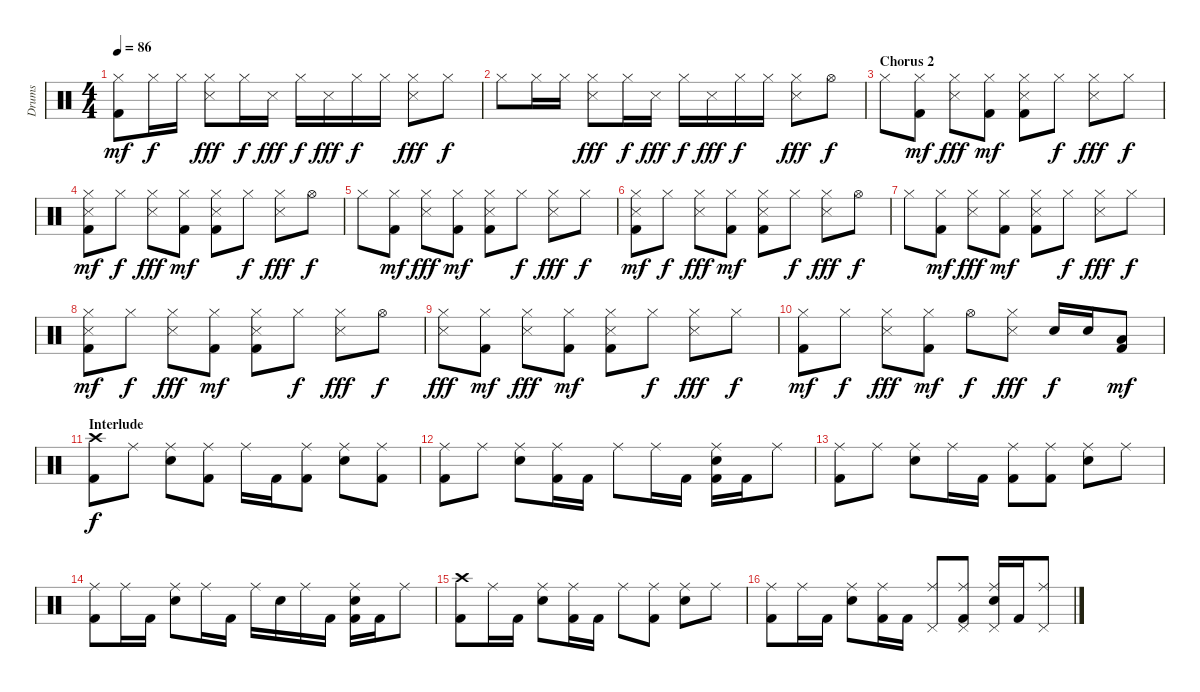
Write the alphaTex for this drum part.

\track ("Drums" "Drums") {instrument percussion}
\staff {score}
\articulation defaults
\ts (4 4)
\tempo 86
\clef neutral
\ks c
("Hi-Hat (closed)" "Kick (hit) 2").8{dy mf} "Hi-Hat (closed)".16{dy f} "Hi-Hat (closed)".16 ("Hi-Hat (closed)" "Snare (side stick) 3").8{dy fff} "Hi-Hat (closed)".16{dy f} "Snare (side stick) 3".16{dy fff} "Hi-Hat (closed)".16{dy f} "Snare (side stick) 3".16{dy fff} "Hi-Hat (closed)".16{dy f} "Hi-Hat (closed)".16 ("Hi-Hat (closed)" "Snare (side stick) 3").8{dy fff} "Hi-Hat (closed)".8{dy f} |
"Hi-Hat (closed)".8 "Hi-Hat (closed)".16 "Hi-Hat (closed)".16 ("Hi-Hat (closed)" "Snare (side stick) 3").8{dy fff} "Hi-Hat (closed)".16{dy f} "Snare (side stick) 3".16{dy fff} "Hi-Hat (closed)".16{dy f} "Snare (side stick) 3".16{dy fff} "Hi-Hat (closed)".16{dy f} "Hi-Hat (closed)".16 ("Hi-Hat (closed)" "Snare (side stick) 3").8{dy fff} "Hi-Hat (open)".8{dy f} |
\section ("" "Chorus 2")
"Hi-Hat (closed)".8 ("Hi-Hat (closed)" "Kick (hit) 2").8{dy mf} ("Hi-Hat (closed)" "Snare (side stick) 3").8{dy fff} ("Hi-Hat (closed)" "Kick (hit) 2").8{dy mf} ("Hi-Hat (closed)" "Snare (side stick) 3" "Kick (hit) 2").8 "Hi-Hat (closed)".8{dy f} ("Hi-Hat (closed)" "Snare (side stick) 3").8{dy fff} "Hi-Hat (closed)".8{dy f} |
("Hi-Hat (closed)" "Snare (side stick) 3" "Kick (hit) 2").8{dy mf} "Hi-Hat (closed)".8{dy f} ("Hi-Hat (closed)" "Snare (side stick) 3").8{dy fff} ("Hi-Hat (closed)" "Kick (hit) 2").8{dy mf} ("Hi-Hat (closed)" "Snare (side stick) 3" "Kick (hit) 2").8 "Hi-Hat (closed)".8{dy f} ("Hi-Hat (closed)" "Snare (side stick) 3").8{dy fff} "Hi-Hat (open)".8{dy f} |
"Hi-Hat (closed)".8 ("Hi-Hat (closed)" "Kick (hit) 2").8{dy mf} ("Hi-Hat (closed)" "Snare (side stick) 3").8{dy fff} ("Hi-Hat (closed)" "Kick (hit) 2").8{dy mf} ("Hi-Hat (closed)" "Snare (side stick) 3" "Kick (hit) 2").8 "Hi-Hat (closed)".8{dy f} ("Hi-Hat (closed)" "Snare (side stick) 3").8{dy fff} "Hi-Hat (closed)".8{dy f} |
("Hi-Hat (closed)" "Snare (side stick) 3" "Kick (hit) 2").8{dy mf} "Hi-Hat (closed)".8{dy f} ("Hi-Hat (closed)" "Snare (side stick) 3").8{dy fff} ("Hi-Hat (closed)" "Kick (hit) 2").8{dy mf} ("Hi-Hat (closed)" "Snare (side stick) 3" "Kick (hit) 2").8 "Hi-Hat (closed)".8{dy f} ("Hi-Hat (closed)" "Snare (side stick) 3").8{dy fff} "Hi-Hat (open)".8{dy f} |
"Hi-Hat (closed)".8 ("Hi-Hat (closed)" "Kick (hit) 2").8{dy mf} ("Hi-Hat (closed)" "Snare (side stick) 3").8{dy fff} ("Hi-Hat (closed)" "Kick (hit) 2").8{dy mf} ("Hi-Hat (closed)" "Snare (side stick) 3" "Kick (hit) 2").8 "Hi-Hat (closed)".8{dy f} ("Hi-Hat (closed)" "Snare (side stick) 3").8{dy fff} "Hi-Hat (closed)".8{dy f} |
("Hi-Hat (closed)" "Snare (side stick) 3" "Kick (hit) 2").8{dy mf} "Hi-Hat (closed)".8{dy f} ("Hi-Hat (closed)" "Snare (side stick) 3").8{dy fff} ("Hi-Hat (closed)" "Kick (hit) 2").8{dy mf} ("Hi-Hat (closed)" "Snare (side stick) 3" "Kick (hit) 2").8 "Hi-Hat (closed)".8{dy f} ("Hi-Hat (closed)" "Snare (side stick) 3").8{dy fff} "Hi-Hat (open)".8{dy f} |
("Hi-Hat (closed)" "Snare (side stick) 3").8{dy fff} ("Hi-Hat (closed)" "Kick (hit) 2").8{dy mf} ("Hi-Hat (closed)" "Snare (side stick) 3").8{dy fff} ("Hi-Hat (closed)" "Kick (hit) 2").8{dy mf} ("Hi-Hat (closed)" "Snare (side stick) 3" "Kick (hit) 2").8 "Hi-Hat (closed)".8{dy f} ("Hi-Hat (closed)" "Snare (side stick) 3").8{dy fff} "Hi-Hat (closed)".8{dy f} |
("Hi-Hat (closed)" "Kick (hit) 2").8{dy mf} "Hi-Hat (closed)".8{dy f} ("Hi-Hat (closed)" "Snare (side stick) 3").8{dy fff} ("Hi-Hat (closed)" "Kick (hit) 2").8{dy mf} "Hi-Hat (open)".8{dy f} ("Hi-Hat (closed)" "Snare (side stick) 3").8{dy fff} "Electric Snare (hit)".16{dy f} "Electric Snare (hit)".16 ("Low Tom (hit)" "Kick (hit) 2").8{dy mf} |
\section ("" "Interlude")
("Crash high (hit)" "Kick (hit) 2").8{dy f} "Ride (middle)".8 ("Ride (middle)" "Electric Snare (hit)").8 ("Ride (middle)" "Kick (hit) 2").8 "Ride (middle)".16 "Kick (hit) 2".16 ("Ride (middle)" "Kick (hit) 2").8 ("Ride (middle)" "Electric Snare (hit)").8 ("Ride (middle)" "Kick (hit) 2").8 |
("Ride (middle)" "Kick (hit) 2").8 "Ride (middle)".8 ("Ride (middle)" "Electric Snare (hit)").8 ("Ride (middle)" "Kick (hit) 2").16 "Kick (hit) 2".16 "Ride (middle)".8 "Ride (middle)".16 "Kick (hit) 2".16 ("Ride (middle)" "Electric Snare (hit)" "Kick (hit) 2").16 "Kick (hit) 2".16 "Ride (middle)".8 |
("Ride (middle)" "Kick (hit) 2").8 "Ride (middle)".8 ("Ride (middle)" "Electric Snare (hit)").8 "Ride (middle)".16 "Kick (hit) 2".16 ("Ride (middle)" "Kick (hit) 2").8 ("Ride (middle)" "Kick (hit) 2").8 ("Ride (middle)" "Electric Snare (hit)").8 "Ride (middle)".8 |
("Ride (middle)" "Kick (hit) 2").8 "Ride (middle)".16 "Kick (hit) 2".16 ("Ride (middle)" "Electric Snare (hit)").8 "Ride (middle)".16 "Kick (hit) 2".16 "Ride (middle)".16 "Electric Snare (hit)".16 "Ride (middle)".16 "Kick (hit) 2".16 ("Ride (middle)" "Electric Snare (hit)" "Kick (hit) 2").16 "Kick (hit) 2".16 "Ride (middle)".8 |
("Crash high (hit)" "Kick (hit) 2").8 "Ride (middle)".16 "Kick (hit) 2".16 ("Ride (middle)" "Electric Snare (hit)").8 ("Ride (middle)" "Kick (hit) 2").16 "Kick (hit) 2".16 "Ride (middle)".8 ("Ride (middle)" "Kick (hit) 2").8 ("Ride (middle)" "Electric Snare (hit)").8 "Ride (middle)".8 |
("Ride (middle)" "Kick (hit) 2").8 "Ride (middle)".16 "Kick (hit) 2".16 ("Ride (middle)" "Electric Snare (hit)").8 ("Ride (middle)" "Kick (hit) 2").16 "Kick (hit) 2".16 ("Ride (middle)" "Pedal Hi-Hat (hit)").8 ("Ride (middle)" "Kick (hit) 2" "Pedal Hi-Hat (hit)").8 ("Ride (middle)" "Electric Snare (hit)" "Pedal Hi-Hat (hit)").16 "Kick (hit) 2".16 ("Ride (middle)" "Pedal Hi-Hat (hit)").8
